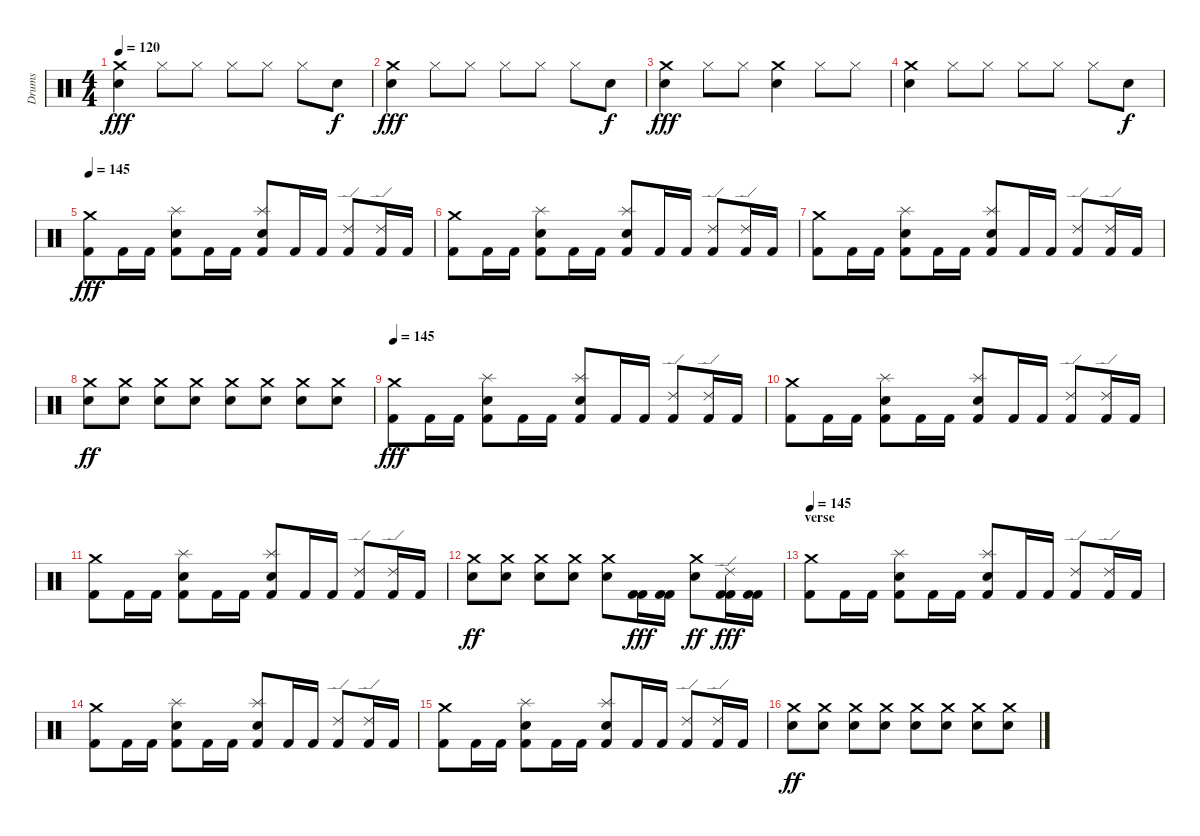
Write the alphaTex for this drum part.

\track ("Drums" "Drums") {instrument percussion}
\staff {score}
\articulation defaults
\ts (4 4)
\tempo 120
\clef neutral
\ks c
("Electric Snare (hit)" "Crash medium (hit)").4{dy fff} "Hi-Hat (closed)".8 "Hi-Hat (closed)".8 "Hi-Hat (closed)".8 "Hi-Hat (closed)".8 "Hi-Hat (closed)".8 "Electric Snare (hit)".8{dy f} |
("Electric Snare (hit)" "Crash medium (hit)").4{dy fff} "Hi-Hat (closed)".8 "Hi-Hat (closed)".8 "Hi-Hat (closed)".8 "Hi-Hat (closed)".8 "Hi-Hat (closed)".8 "Electric Snare (hit)".8{dy f} |
("Crash medium (hit)" "Electric Snare (hit)").4{dy fff} "Hi-Hat (closed)".8 "Hi-Hat (closed)".8 ("Crash medium (hit)" "Electric Snare (hit)").4 "Hi-Hat (closed)".8 "Hi-Hat (closed)".8 |
("Electric Snare (hit)" "Crash medium (hit)").4 "Hi-Hat (closed)".8 "Hi-Hat (closed)".8 "Hi-Hat (closed)".8 "Hi-Hat (closed)".8 "Hi-Hat (closed)".8 "Electric Snare (hit)".8{dy f} |
\tempo 145
("Crash medium (hit)" "Kick (hit) 2").8{dy fff} "Kick (hit) 2".16 "Kick (hit) 2".16 ("Electric Snare (hit)" "Kick (hit) 2" "Splash (hit)").8{balance 0} "Kick (hit) 2".16{balance 8} "Kick (hit) 2".16 ("Snare (hit) 2" "Kick (hit) 2" "Splash (hit)").8{balance 16} "Kick (hit) 2".16{balance 8} "Kick (hit) 2".16 ("Ride (edge) 2" "Kick (hit) 2").8 ("Ride (edge) 2" "Kick (hit) 2").16 "Kick (hit) 2".16 |
("Crash medium (hit)" "Kick (hit) 2").8 "Kick (hit) 2".16 "Kick (hit) 2".16 ("Electric Snare (hit)" "Kick (hit) 2" "Splash (hit)").8{balance 0} "Kick (hit) 2".16{balance 8} "Kick (hit) 2".16 ("Snare (hit) 2" "Kick (hit) 2" "Splash (hit)").8{balance 16} "Kick (hit) 2".16{balance 8} "Kick (hit) 2".16 ("Ride (edge) 2" "Kick (hit) 2").8 ("Ride (edge) 2" "Kick (hit) 2").16 "Kick (hit) 2".16 |
("Crash medium (hit)" "Kick (hit) 2").8 "Kick (hit) 2".16 "Kick (hit) 2".16 ("Electric Snare (hit)" "Kick (hit) 2" "Splash (hit)").8{balance 0} "Kick (hit) 2".16{balance 8} "Kick (hit) 2".16 ("Snare (hit) 2" "Kick (hit) 2" "Splash (hit)").8{balance 16} "Kick (hit) 2".16{balance 8} "Kick (hit) 2".16 ("Ride (edge) 2" "Kick (hit) 2").8 ("Ride (edge) 2" "Kick (hit) 2").16 "Kick (hit) 2".16 |
("Crash medium (hit)" "Electric Snare (hit)").8{dy ff} ("Crash medium (hit)" "Electric Snare (hit)").8 ("Crash medium (hit)" "Electric Snare (hit)").8 ("Crash medium (hit)" "Electric Snare (hit)").8 ("Crash medium (hit)" "Electric Snare (hit)").8 ("Crash medium (hit)" "Electric Snare (hit)").8 ("Crash medium (hit)" "Electric Snare (hit)").8 ("Crash medium (hit)" "Electric Snare (hit)").8 |
\tempo 145
("Crash medium (hit)" "Kick (hit) 2").8{dy fff} "Kick (hit) 2".16 "Kick (hit) 2".16 ("Electric Snare (hit)" "Kick (hit) 2" "Splash (hit)").8{balance 0} "Kick (hit) 2".16{balance 8} "Kick (hit) 2".16 ("Snare (hit) 2" "Kick (hit) 2" "Splash (hit)").8{balance 16} "Kick (hit) 2".16{balance 8} "Kick (hit) 2".16 ("Ride (edge) 2" "Kick (hit) 2").8 ("Ride (edge) 2" "Kick (hit) 2").16 "Kick (hit) 2".16 |
("Crash medium (hit)" "Kick (hit) 2").8 "Kick (hit) 2".16 "Kick (hit) 2".16 ("Electric Snare (hit)" "Kick (hit) 2" "Splash (hit)").8{balance 0} "Kick (hit) 2".16{balance 8} "Kick (hit) 2".16 ("Snare (hit) 2" "Kick (hit) 2" "Splash (hit)").8{balance 16} "Kick (hit) 2".16{balance 8} "Kick (hit) 2".16 ("Ride (edge) 2" "Kick (hit) 2").8 ("Ride (edge) 2" "Kick (hit) 2").16 "Kick (hit) 2".16 |
("Crash medium (hit)" "Kick (hit) 2").8 "Kick (hit) 2".16 "Kick (hit) 2".16 ("Electric Snare (hit)" "Kick (hit) 2" "Splash (hit)").8{balance 0} "Kick (hit) 2".16{balance 8} "Kick (hit) 2".16 ("Snare (hit) 2" "Kick (hit) 2" "Splash (hit)").8{balance 16} "Kick (hit) 2".16{balance 8} "Kick (hit) 2".16 ("Ride (edge) 2" "Kick (hit) 2").8 ("Ride (edge) 2" "Kick (hit) 2").16 "Kick (hit) 2".16 |
("Crash medium (hit)" "Electric Snare (hit)").8{dy ff} ("Crash medium (hit)" "Electric Snare (hit)").8 ("Crash medium (hit)" "Electric Snare (hit)").8 ("Crash medium (hit)" "Electric Snare (hit)").8 ("Crash medium (hit)" "Electric Snare (hit)").8 ("Kick (hit) 2" "Kick (hit) 2").16{dy fff} ("Kick (hit) 2" "Kick (hit) 2").16 ("Crash medium (hit)" "Electric Snare (hit)").8{dy ff} ("Ride (edge) 2" "Kick (hit) 2" "Kick (hit) 2").16{dy fff} ("Kick (hit) 2" "Kick (hit) 2").16 |
\section ("" "verse")
\tempo 145
("Crash medium (hit)" "Kick (hit) 2").8 "Kick (hit) 2".16 "Kick (hit) 2".16 ("Electric Snare (hit)" "Kick (hit) 2" "Splash (hit)").8{balance 0} "Kick (hit) 2".16{balance 8} "Kick (hit) 2".16 ("Snare (hit) 2" "Kick (hit) 2" "Splash (hit)").8{balance 16} "Kick (hit) 2".16{balance 8} "Kick (hit) 2".16 ("Ride (edge) 2" "Kick (hit) 2").8 ("Ride (edge) 2" "Kick (hit) 2").16 "Kick (hit) 2".16 |
("Crash medium (hit)" "Kick (hit) 2").8 "Kick (hit) 2".16 "Kick (hit) 2".16 ("Electric Snare (hit)" "Kick (hit) 2" "Splash (hit)").8{balance 0} "Kick (hit) 2".16{balance 8} "Kick (hit) 2".16 ("Snare (hit) 2" "Kick (hit) 2" "Splash (hit)").8{balance 16} "Kick (hit) 2".16{balance 8} "Kick (hit) 2".16 ("Ride (edge) 2" "Kick (hit) 2").8 ("Ride (edge) 2" "Kick (hit) 2").16 "Kick (hit) 2".16 |
("Crash medium (hit)" "Kick (hit) 2").8 "Kick (hit) 2".16 "Kick (hit) 2".16 ("Electric Snare (hit)" "Kick (hit) 2" "Splash (hit)").8{balance 0} "Kick (hit) 2".16{balance 8} "Kick (hit) 2".16 ("Snare (hit) 2" "Kick (hit) 2" "Splash (hit)").8{balance 16} "Kick (hit) 2".16{balance 8} "Kick (hit) 2".16 ("Ride (edge) 2" "Kick (hit) 2").8 ("Ride (edge) 2" "Kick (hit) 2").16 "Kick (hit) 2".16 |
("Crash medium (hit)" "Electric Snare (hit)").8{dy ff} ("Crash medium (hit)" "Electric Snare (hit)").8 ("Crash medium (hit)" "Electric Snare (hit)").8 ("Crash medium (hit)" "Electric Snare (hit)").8 ("Crash medium (hit)" "Electric Snare (hit)").8 ("Crash medium (hit)" "Electric Snare (hit)").8 ("Crash medium (hit)" "Electric Snare (hit)").8 ("Crash medium (hit)" "Electric Snare (hit)").8
